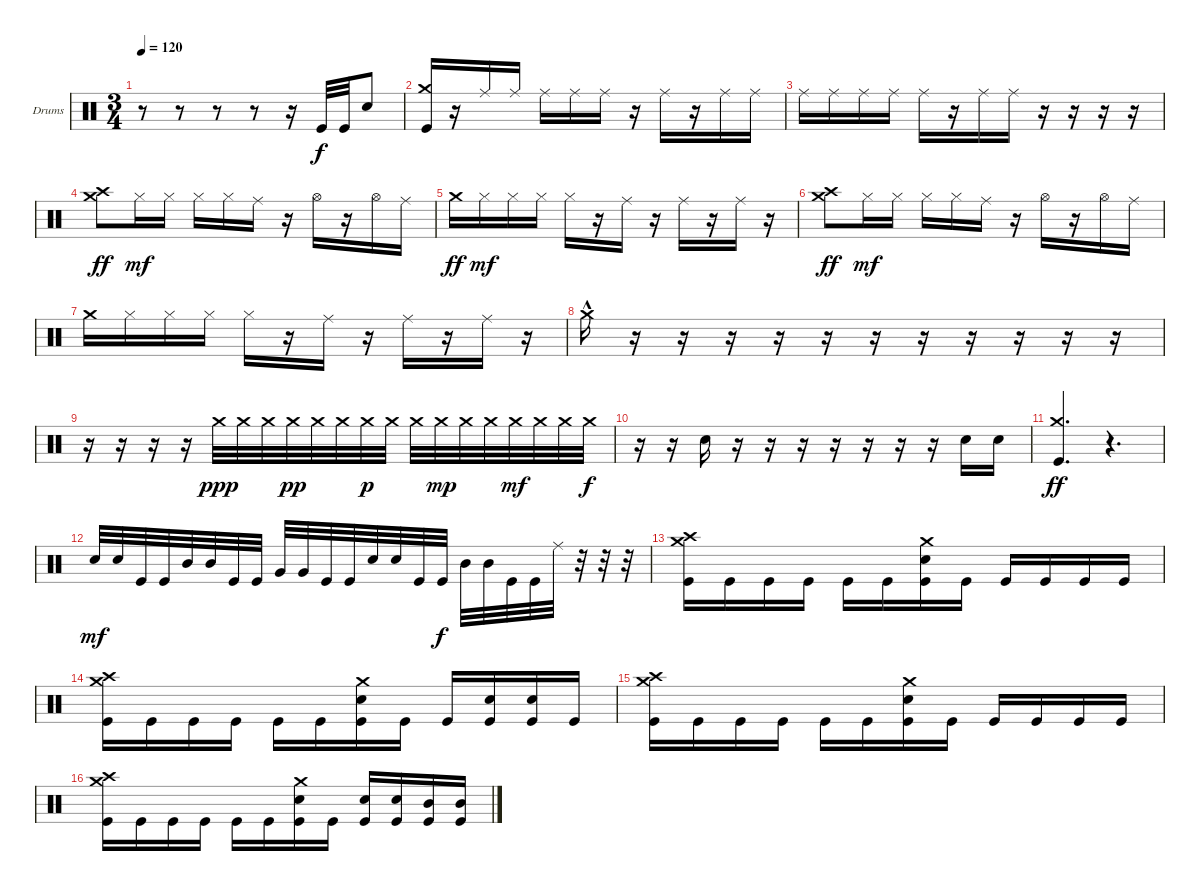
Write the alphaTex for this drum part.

\defaultSystemsLayout 4
\bracketExtendMode groupsimilarinstruments
\firstSystemTrackNameOrientation horizontal
\otherSystemsTrackNameOrientation horizontal
\track ("Drumkit" "Drums") {instrument percussion}
\staff {score}
\articulation defaults
\ts (3 4)
\tempo 120
\clef neutral
\ks c
r.8{dy f} r.8 r.8 r.8 r.16 "Kick (hit)".32 "Kick (hit)".32 "Snare (hit) 2".8 |
("Crash medium (hit)" "Kick (hit)").16{beam invert} r.16 "Ride (middle)".16 "Ride (middle)".16 "Ride (middle)".16 "Ride (middle)".16 "Ride (middle)".16 r.16 "Ride (middle)".16 r.16 "Ride (middle)".16 "Ride (middle)".16 |
"Ride (middle)".16 "Ride (middle)".16 "Ride (middle)".16 "Ride (middle)".16 "Ride (middle)".16 r.16 "Ride (middle)".16 "Ride (middle)".16 r.16 r.16 r.16 r.16 |
("Crash medium (hit)" "Crash high (hit)").8{dy ff} "Hi-Hat (closed)".16{dy mf} "Hi-Hat (closed)".16 "Hi-Hat (closed)".16 "Hi-Hat (closed)".16 "Ride (middle)".16 r.16 "Hi-Hat (open)".16 r.16 "Hi-Hat (open)".16 "Ride (middle)".16 |
"Crash medium (hit)".16{dy ff} "Hi-Hat (closed)".16{dy mf} "Hi-Hat (closed)".16 "Hi-Hat (closed)".16 "Hi-Hat (closed)".16 r.16 "Ride (middle)".16 r.16 "Ride (middle)".16 r.16 "Ride (middle)".16 r.16 |
("Crash medium (hit)" "Crash high (hit)").8{dy ff} "Hi-Hat (closed)".16{dy mf} "Hi-Hat (closed)".16 "Hi-Hat (closed)".16 "Hi-Hat (closed)".16 "Ride (middle)".16 r.16 "Hi-Hat (open)".16 r.16 "Hi-Hat (open)".16 "Ride (middle)".16 |
"Crash medium (hit)".16 "Hi-Hat (closed)".16 "Hi-Hat (closed)".16 "Hi-Hat (closed)".16 "Hi-Hat (closed)".16 r.16 "Ride (middle)".16 r.16 "Ride (middle)".16 r.16 "Ride (middle)".16 r.16 |
"Crash medium (hit)"{hac}.16 r.16 r.16 r.16 r.16 r.16 r.16 r.16 r.16 r.16 r.16 r.16 |
r.16 r.16 r.16 r.16 "Crash medium (hit)".32{dy ppp} "Crash medium (hit)".32 "Crash medium (hit)".32 "Crash medium (hit)".32{dy pp} "Crash medium (hit)".32 "Crash medium (hit)".32 "Crash medium (hit)".32{dy p} "Crash medium (hit)".32 "Crash medium (hit)".32 "Crash medium (hit)".32{dy mp} "Crash medium (hit)".32 "Crash medium (hit)".32 "Crash medium (hit)".32{dy mf} "Crash medium (hit)".32 "Crash medium (hit)".32 "Crash medium (hit)".32{dy f} |
r.16 r.16 "Snare (hit) 2".16 r.16 r.16 r.16 r.16 r.16 r.16 r.16 "Snare (hit) 2".16 "Snare (hit) 2".16 |
("Crash medium (hit)" "Kick (hit)").4{d dy ff beam invert} r.4{d} |
"Snare (hit) 2".32{dy mf} "Snare (hit) 2".32 "Kick (hit)".32 "Kick (hit)".32 "Mid Tom (hit)".32 "Mid Tom (hit)".32 "Kick (hit)".32 "Kick (hit)".32 "Very Low Tom (hit)".32 "Very Low Tom (hit)".32 "Kick (hit)".32 "Kick (hit)".32 "Snare (hit) 2".32 "Snare (hit) 2".32 "Kick (hit)".32 "Kick (hit)".32{dy f} "Mid Tom (hit)".32 "Mid Tom (hit)".32 "Kick (hit)".32 "Kick (hit)".32 "Ride (middle)".32 r.32 r.32 r.32 |
("Crash medium (hit)" "Crash high (hit)" "Kick (hit)").16 "Kick (hit)".16 "Kick (hit)".16 "Kick (hit)".16 "Kick (hit)".16 "Kick (hit)".16 ("Kick (hit)" "Snare (hit) 2" "Crash medium (hit)").16 "Kick (hit)".16 "Kick (hit)".16 "Kick (hit)".16 "Kick (hit)".16 "Kick (hit)".16 |
("Crash medium (hit)" "Crash high (hit)" "Kick (hit)").16 "Kick (hit)".16 "Kick (hit)".16 "Kick (hit)".16 "Kick (hit)".16 "Kick (hit)".16 ("Kick (hit)" "Snare (hit) 2" "Crash medium (hit)").16 "Kick (hit)".16 "Kick (hit)".16 ("Kick (hit)" "Snare (hit) 2").16 ("Kick (hit)" "Snare (hit) 2").16 "Kick (hit)".16 |
("Crash medium (hit)" "Crash high (hit)" "Kick (hit)").16 "Kick (hit)".16 "Kick (hit)".16 "Kick (hit)".16 "Kick (hit)".16 "Kick (hit)".16 ("Kick (hit)" "Snare (hit) 2" "Crash medium (hit)").16 "Kick (hit)".16 "Kick (hit)".16 "Kick (hit)".16 "Kick (hit)".16 "Kick (hit)".16 |
("Crash medium (hit)" "Crash high (hit)" "Kick (hit)").16 "Kick (hit)".16 "Kick (hit)".16 "Kick (hit)".16 "Kick (hit)".16 "Kick (hit)".16 ("Kick (hit)" "Snare (hit) 2" "Crash medium (hit)").16 "Kick (hit)".16 ("Kick (hit)" "Snare (hit) 2").16 ("Kick (hit)" "Snare (hit) 2").16 ("Kick (hit)" "Mid Tom (hit)").16 ("Kick (hit)" "Mid Tom (hit)").16
